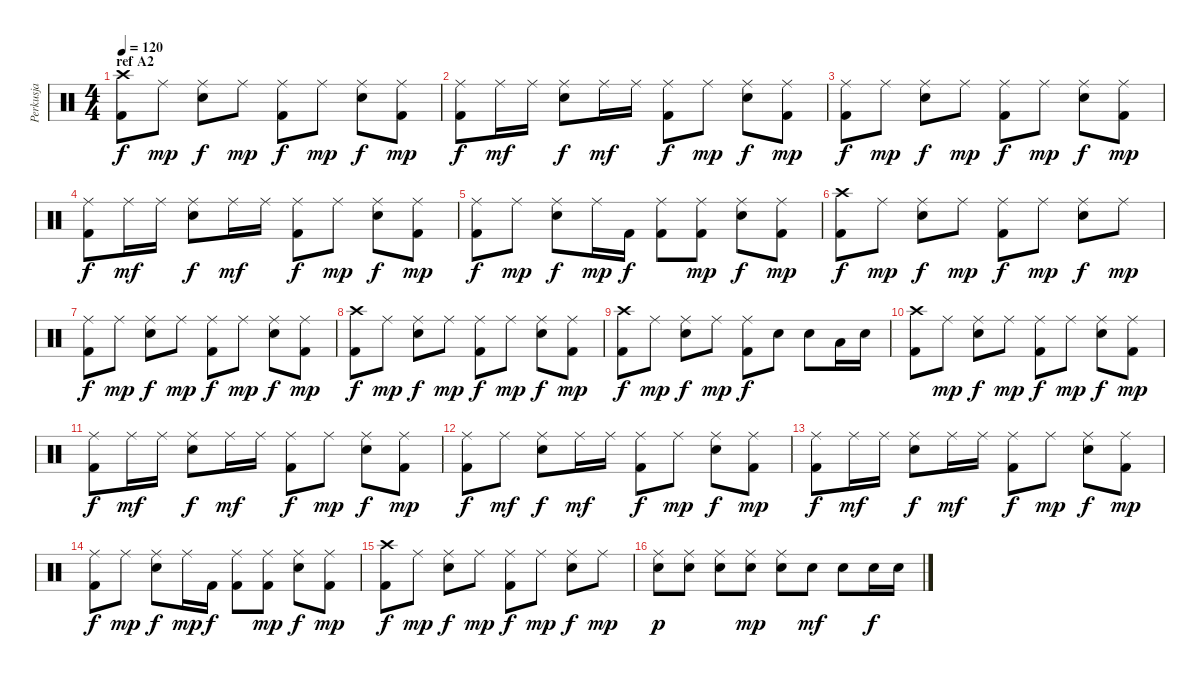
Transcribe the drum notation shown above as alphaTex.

\track ("Perkusja" "Perkusja") {instrument percussion}
\staff {score}
\articulation defaults
\ts (4 4)
\section ("" "ref A2")
\tempo 120
\clef neutral
\ks c
("Crash high (hit)" "Kick (hit) 2").8{dy f} "Ride (middle)".8{dy mp} ("Ride (middle)" "Snare (hit) 2").8{dy f} "Ride (middle)".8{dy mp} ("Ride (middle)" "Kick (hit) 2").8{dy f} "Ride (middle)".8{dy mp} ("Ride (middle)" "Snare (hit) 2").8{dy f} ("Ride (middle)" "Kick (hit) 2").8{dy mp} |
("Ride (middle)" "Kick (hit) 2").8{dy f} "Ride (middle)".16{dy mf} "Ride (middle)".16 ("Ride (middle)" "Snare (hit) 2").8{dy f} "Ride (middle)".16{dy mf} "Ride (middle)".16 ("Ride (middle)" "Kick (hit) 2").8{dy f} "Ride (middle)".8{dy mp} ("Ride (middle)" "Snare (hit) 2").8{dy f} ("Ride (middle)" "Kick (hit) 2").8{dy mp} |
("Ride (middle)" "Kick (hit) 2").8{dy f} "Ride (middle)".8{dy mp} ("Ride (middle)" "Snare (hit) 2").8{dy f} "Ride (middle)".8{dy mp} ("Ride (middle)" "Kick (hit) 2").8{dy f} "Ride (middle)".8{dy mp} ("Ride (middle)" "Snare (hit) 2").8{dy f} ("Ride (middle)" "Kick (hit) 2").8{dy mp} |
("Ride (middle)" "Kick (hit) 2").8{dy f} "Ride (middle)".16{dy mf} "Ride (middle)".16 ("Ride (middle)" "Snare (hit) 2").8{dy f} "Ride (middle)".16{dy mf} "Ride (middle)".16 ("Ride (middle)" "Kick (hit) 2").8{dy f} "Ride (middle)".8{dy mp} ("Ride (middle)" "Snare (hit) 2").8{dy f} ("Ride (middle)" "Kick (hit) 2").8{dy mp} |
("Ride (middle)" "Kick (hit) 2").8{dy f} "Ride (middle)".8{dy mp} ("Ride (middle)" "Snare (hit) 2").8{dy f} "Ride (middle)".16{dy mp} "Kick (hit) 2".16{dy f} ("Ride (middle)" "Kick (hit) 2").8 ("Ride (middle)" "Kick (hit) 2").8{dy mp} ("Ride (middle)" "Snare (hit) 2").8{dy f} ("Ride (middle)" "Kick (hit) 2").8{dy mp} |
("Crash high (hit)" "Kick (hit) 2").8{dy f} "Ride (middle)".8{dy mp} ("Ride (middle)" "Snare (hit) 2").8{dy f} "Ride (middle)".8{dy mp} ("Ride (middle)" "Kick (hit) 2").8{dy f} "Ride (middle)".8{dy mp} ("Ride (middle)" "Snare (hit) 2").8{dy f} "Ride (middle)".8{dy mp} |
("Ride (middle)" "Kick (hit) 2").8{dy f} "Ride (middle)".8{dy mp} ("Ride (middle)" "Snare (hit) 2").8{dy f} "Ride (middle)".8{dy mp} ("Ride (middle)" "Kick (hit) 2").8{dy f} "Ride (middle)".8{dy mp} ("Ride (middle)" "Snare (hit) 2").8{dy f} ("Ride (middle)" "Kick (hit) 2").8{dy mp} |
("Crash high (hit)" "Kick (hit) 2").8{dy f} "Ride (middle)".8{dy mp} ("Ride (middle)" "Snare (hit) 2").8{dy f} "Ride (middle)".8{dy mp} ("Ride (middle)" "Kick (hit) 2").8{dy f} "Ride (middle)".8{dy mp} ("Ride (middle)" "Snare (hit) 2").8{dy f} ("Ride (middle)" "Kick (hit) 2").8{dy mp} |
("Crash high (hit)" "Kick (hit) 2").8{dy f} "Ride (middle)".8{dy mp} ("Ride (middle)" "Snare (hit) 2").8{dy f} "Ride (middle)".8{dy mp} ("Ride (middle)" "Kick (hit) 2").8{dy f} "Snare (hit) 2".8 "Snare (hit) 2".8 "Low Tom (hit)".16 "Snare (hit) 2".16 |
("Crash high (hit)" "Kick (hit) 2").8 "Ride (middle)".8{dy mp} ("Ride (middle)" "Snare (hit) 2").8{dy f} "Ride (middle)".8{dy mp} ("Ride (middle)" "Kick (hit) 2").8{dy f} "Ride (middle)".8{dy mp} ("Ride (middle)" "Snare (hit) 2").8{dy f} ("Ride (middle)" "Kick (hit) 2").8{dy mp} |
("Ride (middle)" "Kick (hit) 2").8{dy f} "Ride (middle)".16{dy mf} "Ride (middle)".16 ("Ride (middle)" "Snare (hit) 2").8{dy f} "Ride (middle)".16{dy mf} "Ride (middle)".16 ("Ride (middle)" "Kick (hit) 2").8{dy f} "Ride (middle)".8{dy mp} ("Ride (middle)" "Snare (hit) 2").8{dy f} ("Ride (middle)" "Kick (hit) 2").8{dy mp} |
("Ride (middle)" "Kick (hit) 2").8{dy f} "Ride (middle)".8{dy mf} ("Ride (middle)" "Snare (hit) 2").8{dy f} "Ride (middle)".16{dy mf} "Ride (middle)".16 ("Ride (middle)" "Kick (hit) 2").8{dy f} "Ride (middle)".8{dy mp} ("Ride (middle)" "Snare (hit) 2").8{dy f} ("Ride (middle)" "Kick (hit) 2").8{dy mp} |
("Ride (middle)" "Kick (hit) 2").8{dy f} "Ride (middle)".16{dy mf} "Ride (middle)".16 ("Ride (middle)" "Snare (hit) 2").8{dy f} "Ride (middle)".16{dy mf} "Ride (middle)".16 ("Ride (middle)" "Kick (hit) 2").8{dy f} "Ride (middle)".8{dy mp} ("Ride (middle)" "Snare (hit) 2").8{dy f} ("Ride (middle)" "Kick (hit) 2").8{dy mp} |
("Ride (middle)" "Kick (hit) 2").8{dy f} "Ride (middle)".8{dy mp} ("Ride (middle)" "Snare (hit) 2").8{dy f} "Ride (middle)".16{dy mp} "Kick (hit) 2".16{dy f} ("Ride (middle)" "Kick (hit) 2").8 ("Ride (middle)" "Kick (hit) 2").8{dy mp} ("Ride (middle)" "Snare (hit) 2").8{dy f} ("Ride (middle)" "Kick (hit) 2").8{dy mp} |
("Crash high (hit)" "Kick (hit) 2").8{dy f} "Ride (middle)".8{dy mp} ("Ride (middle)" "Snare (hit) 2").8{dy f} "Ride (middle)".8{dy mp} ("Ride (middle)" "Kick (hit) 2").8{dy f} "Ride (middle)".8{dy mp} ("Ride (middle)" "Snare (hit) 2").8{dy f} "Ride (middle)".8{dy mp} |
("Ride (middle)" "Snare (hit) 2").8{dy p} ("Ride (middle)" "Snare (hit) 2").8 ("Ride (middle)" "Snare (hit) 2").8 ("Ride (middle)" "Snare (hit) 2").8{dy mp} ("Ride (middle)" "Snare (hit) 2").8 "Snare (hit) 2".8{dy mf} "Snare (hit) 2".8 "Snare (hit) 2".16{dy f} "Snare (hit) 2".16
